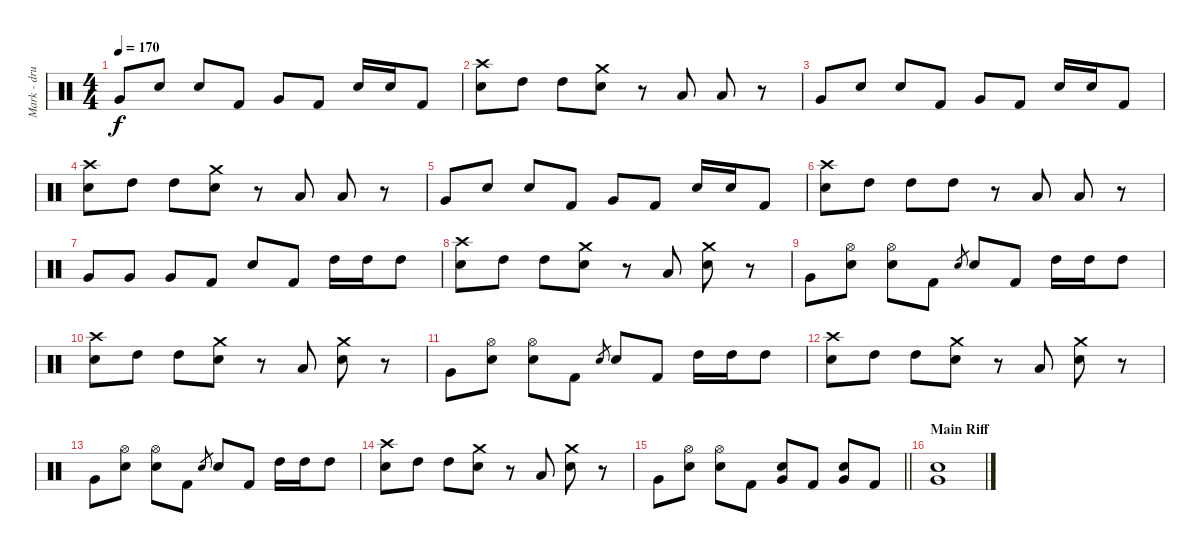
\track ("Mark - drums" "Mark - dru") {instrument percussion}
\staff {score}
\articulation defaults
\ts (4 4)
\tempo 170
\clef neutral
\ks c "Very Low Tom (hit)".8{dy f} "Electric Snare (hit)".8 "Electric Snare (hit)".8 "Kick (hit) 2".8 "Very Low Tom (hit)".8 "Kick (hit) 2".8 "Electric Snare (hit)".16 "Electric Snare (hit)".16 "Kick (hit) 2".8
|
("Electric Snare (hit)" "Crash high (hit)").8 "High Tom (hit)".8 "High Tom (hit)".8 ("Electric Snare (hit)" "Crash medium (hit)").8 r.8 "Low Tom (hit)".8 "Low Tom (hit)".8 r.8 |
"Very Low Tom (hit)".8 "Electric Snare (hit)".8 "Electric Snare (hit)".8 "Kick (hit) 2".8 "Very Low Tom (hit)".8 "Kick (hit) 2".8 "Electric Snare (hit)".16 "Electric Snare (hit)".16 "Kick (hit) 2".8 |
("Electric Snare (hit)" "Crash high (hit)").8 "High Tom (hit)".8 "High Tom (hit)".8 ("Electric Snare (hit)" "Crash medium (hit)").8 r.8 "Low Tom (hit)".8 "Low Tom (hit)".8 r.8 |
"Very Low Tom (hit)".8 "Electric Snare (hit)".8 "Electric Snare (hit)".8 "Kick (hit) 2".8 "Very Low Tom (hit)".8 "Kick (hit) 2".8 "Electric Snare (hit)".16 "Electric Snare (hit)".16 "Kick (hit) 2".8 |
("Electric Snare (hit)" "Crash high (hit)").8 "High Tom (hit)".8 "High Tom (hit)".8 "High Tom (hit)".8 r.8 "Low Tom (hit)".8 "Low Tom (hit)".8 r.8 |
"Very Low Tom (hit)".8 "Very Low Tom (hit)".8 "Very Low Tom (hit)".8 "Kick (hit) 2".8 "Electric Snare (hit)".8 "Kick (hit) 2".8 "High Tom (hit)".16 "High Tom (hit)".16 "High Tom (hit)".8 |
("Electric Snare (hit)" "Crash high (hit)").8 "High Tom (hit)".8 "High Tom (hit)".8 ("Electric Snare (hit)" "Crash medium (hit)").8 r.8 "Low Tom (hit)".8 ("Electric Snare (hit)" "Crash medium (hit)").8 r.8 |
"Very Low Tom (hit)".8 ("Electric Snare (hit)" "Hi-Hat (open)").8 ("Electric Snare (hit)" "Hi-Hat (open)").8 "Kick (hit) 2".8 "Electric Snare (hit)".8{gr} "Electric Snare (hit)".8 "Kick (hit) 2".8 "High Tom (hit)".16 "High Tom (hit)".16 "High Tom (hit)".8 |
("Electric Snare (hit)" "Crash high (hit)").8 "High Tom (hit)".8 "High Tom (hit)".8 ("Electric Snare (hit)" "Crash medium (hit)").8 r.8 "Low Tom (hit)".8 ("Electric Snare (hit)" "Crash medium (hit)").8 r.8 |
"Very Low Tom (hit)".8 ("Electric Snare (hit)" "Hi-Hat (open)").8 ("Electric Snare (hit)" "Hi-Hat (open)").8 "Kick (hit) 2".8 "Electric Snare (hit)".8{gr} "Electric Snare (hit)".8 "Kick (hit) 2".8 "High Tom (hit)".16 "High Tom (hit)".16 "High Tom (hit)".8 |
("Electric Snare (hit)" "Crash high (hit)").8 "High Tom (hit)".8 "High Tom (hit)".8 ("Electric Snare (hit)" "Crash medium (hit)").8 r.8 "Low Tom (hit)".8 ("Electric Snare (hit)" "Crash medium (hit)").8 r.8 |
"Very Low Tom (hit)".8 ("Electric Snare (hit)" "Hi-Hat (open)").8 ("Electric Snare (hit)" "Hi-Hat (open)").8 "Kick (hit) 2".8 "Electric Snare (hit)".8{gr} "Electric Snare (hit)".8 "Kick (hit) 2".8 "High Tom (hit)".16 "High Tom (hit)".16 "High Tom (hit)".8 |
("Electric Snare (hit)" "Crash high (hit)").8 "High Tom (hit)".8 "High Tom (hit)".8 ("Electric Snare (hit)" "Crash medium (hit)").8 r.8 "Low Tom (hit)".8 ("Electric Snare (hit)" "Crash medium (hit)").8 r.8 |
\barLineRight lightlight "Very Low Tom (hit)".8
("Electric Snare (hit)" "Hi-Hat (open)").8 ("Electric Snare (hit)" "Hi-Hat (open)").8 "Kick (hit) 2".8 ("Electric Snare (hit)" "Very Low Tom (hit)").8 "Kick (hit) 2".8 ("Electric Snare (hit)" "Very Low Tom (hit)").8 "Kick (hit) 2".8 |
\section ("" "Main Riff")
("Electric Snare (hit)" "Very Low Tom (hit)").1
